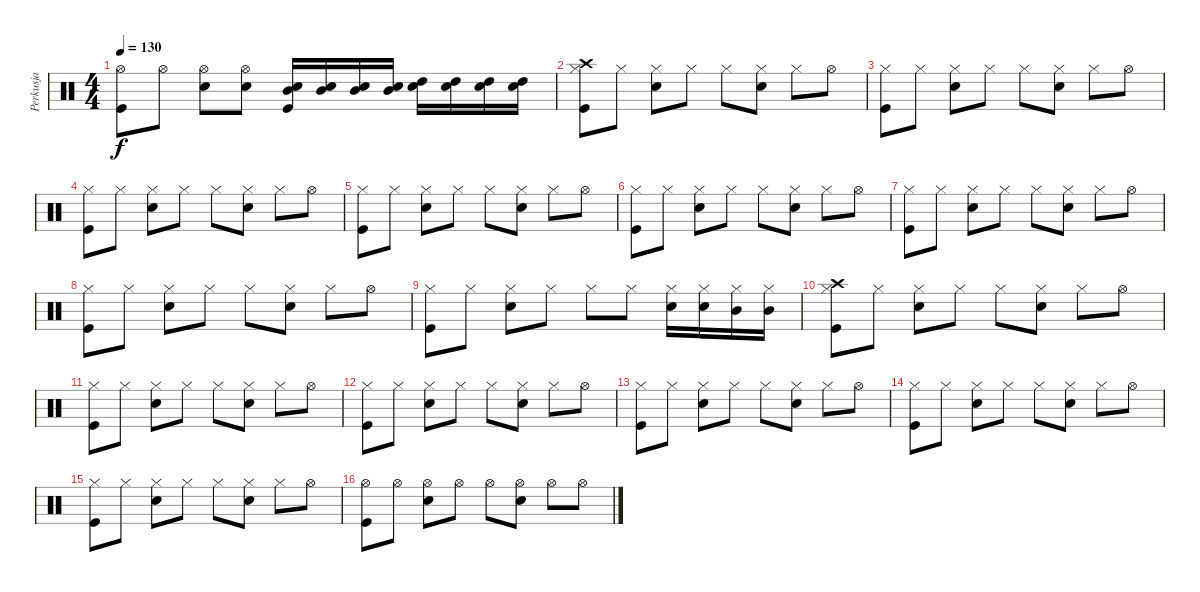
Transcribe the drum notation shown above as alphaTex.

\track ("Perkusja" "Perkusja") {instrument percussion}
\staff {score}
\articulation defaults
\ts (4 4)
\tempo 130
\clef neutral
\ks c
("Hi-Hat (open)" "Kick (hit)").8{dy f} "Hi-Hat (open)".8 ("Hi-Hat (open)" "Electric Snare (hit)").8 ("Hi-Hat (open)" "Electric Snare (hit)").8 ("Mid Tom (hit)" "Electric Snare (hit)" "Kick (hit)").16 ("Mid Tom (hit)" "Electric Snare (hit)").16 ("Mid Tom (hit)" "Electric Snare (hit)").16 ("Mid Tom (hit)" "Electric Snare (hit)").16 ("High Tom (hit)" "Electric Snare (hit)").16 ("High Tom (hit)" "Electric Snare (hit)").16 ("High Tom (hit)" "Electric Snare (hit)").16 ("High Tom (hit)" "Electric Snare (hit)").16 |
("Hi-Hat (closed)" "Crash high (hit)" "Kick (hit)").8 "Hi-Hat (closed)".8 ("Hi-Hat (closed)" "Electric Snare (hit)").8 "Hi-Hat (closed)".8 "Hi-Hat (closed)".8 ("Hi-Hat (closed)" "Electric Snare (hit)").8 "Hi-Hat (closed)".8 "Hi-Hat (open)".8 |
("Hi-Hat (closed)" "Kick (hit)").8 "Hi-Hat (closed)".8 ("Hi-Hat (closed)" "Electric Snare (hit)").8 "Hi-Hat (closed)".8 "Hi-Hat (closed)".8 ("Hi-Hat (closed)" "Electric Snare (hit)").8 "Hi-Hat (closed)".8 "Hi-Hat (open)".8 |
("Hi-Hat (closed)" "Kick (hit)").8 "Hi-Hat (closed)".8 ("Hi-Hat (closed)" "Electric Snare (hit)").8 "Hi-Hat (closed)".8 "Hi-Hat (closed)".8 ("Hi-Hat (closed)" "Electric Snare (hit)").8 "Hi-Hat (closed)".8 "Hi-Hat (open)".8 |
("Hi-Hat (closed)" "Kick (hit)").8 "Hi-Hat (closed)".8 ("Hi-Hat (closed)" "Electric Snare (hit)").8 "Hi-Hat (closed)".8 "Hi-Hat (closed)".8 ("Hi-Hat (closed)" "Electric Snare (hit)").8 "Hi-Hat (closed)".8 "Hi-Hat (open)".8 |
("Hi-Hat (closed)" "Kick (hit)").8 "Hi-Hat (closed)".8 ("Hi-Hat (closed)" "Electric Snare (hit)").8 "Hi-Hat (closed)".8 "Hi-Hat (closed)".8 ("Hi-Hat (closed)" "Electric Snare (hit)").8 "Hi-Hat (closed)".8 "Hi-Hat (open)".8 |
("Hi-Hat (closed)" "Kick (hit)").8 "Hi-Hat (closed)".8 ("Hi-Hat (closed)" "Electric Snare (hit)").8 "Hi-Hat (closed)".8 "Hi-Hat (closed)".8 ("Hi-Hat (closed)" "Electric Snare (hit)").8 "Hi-Hat (closed)".8 "Hi-Hat (open)".8 |
("Hi-Hat (closed)" "Kick (hit)").8 "Hi-Hat (closed)".8 ("Hi-Hat (closed)" "Electric Snare (hit)").8 "Hi-Hat (closed)".8 "Hi-Hat (closed)".8 ("Hi-Hat (closed)" "Electric Snare (hit)").8 "Hi-Hat (closed)".8 "Hi-Hat (open)".8 |
("Hi-Hat (closed)" "Kick (hit)").8 "Hi-Hat (closed)".8 ("Hi-Hat (closed)" "Electric Snare (hit)").8 "Hi-Hat (closed)".8 "Hi-Hat (closed)".8 "Hi-Hat (closed)".8 ("Hi-Hat (closed)" "Electric Snare (hit)").16 ("Hi-Hat (closed)" "Electric Snare (hit)").16 ("Hi-Hat (closed)" "Mid Tom (hit)").16 ("Hi-Hat (closed)" "Mid Tom (hit)").16 |
("Hi-Hat (closed)" "Crash high (hit)" "Kick (hit)").8 "Hi-Hat (closed)".8 ("Hi-Hat (closed)" "Electric Snare (hit)").8 "Hi-Hat (closed)".8 "Hi-Hat (closed)".8 ("Hi-Hat (closed)" "Electric Snare (hit)").8 "Hi-Hat (closed)".8 "Hi-Hat (open)".8 |
("Hi-Hat (closed)" "Kick (hit)").8 "Hi-Hat (closed)".8 ("Hi-Hat (closed)" "Electric Snare (hit)").8 "Hi-Hat (closed)".8 "Hi-Hat (closed)".8 ("Hi-Hat (closed)" "Electric Snare (hit)").8 "Hi-Hat (closed)".8 "Hi-Hat (open)".8 |
("Hi-Hat (closed)" "Kick (hit)").8 "Hi-Hat (closed)".8 ("Hi-Hat (closed)" "Electric Snare (hit)").8 "Hi-Hat (closed)".8 "Hi-Hat (closed)".8 ("Hi-Hat (closed)" "Electric Snare (hit)").8 "Hi-Hat (closed)".8 "Hi-Hat (open)".8 |
("Hi-Hat (closed)" "Kick (hit)").8 "Hi-Hat (closed)".8 ("Hi-Hat (closed)" "Electric Snare (hit)").8 "Hi-Hat (closed)".8 "Hi-Hat (closed)".8 ("Hi-Hat (closed)" "Electric Snare (hit)").8 "Hi-Hat (closed)".8 "Hi-Hat (open)".8 |
("Hi-Hat (closed)" "Kick (hit)").8 "Hi-Hat (closed)".8 ("Hi-Hat (closed)" "Electric Snare (hit)").8 "Hi-Hat (closed)".8 "Hi-Hat (closed)".8 ("Hi-Hat (closed)" "Electric Snare (hit)").8 "Hi-Hat (closed)".8 "Hi-Hat (open)".8 |
("Hi-Hat (closed)" "Kick (hit)").8 "Hi-Hat (closed)".8 ("Hi-Hat (closed)" "Electric Snare (hit)").8 "Hi-Hat (closed)".8 "Hi-Hat (closed)".8 ("Hi-Hat (closed)" "Electric Snare (hit)").8 "Hi-Hat (closed)".8 "Hi-Hat (open)".8 |
("Hi-Hat (open)" "Kick (hit)").8 "Hi-Hat (open)".8 ("Hi-Hat (open)" "Electric Snare (hit)").8 "Hi-Hat (open)".8 "Hi-Hat (open)".8 ("Hi-Hat (open)" "Electric Snare (hit)").8 "Hi-Hat (open)".8 "Hi-Hat (open)".8
